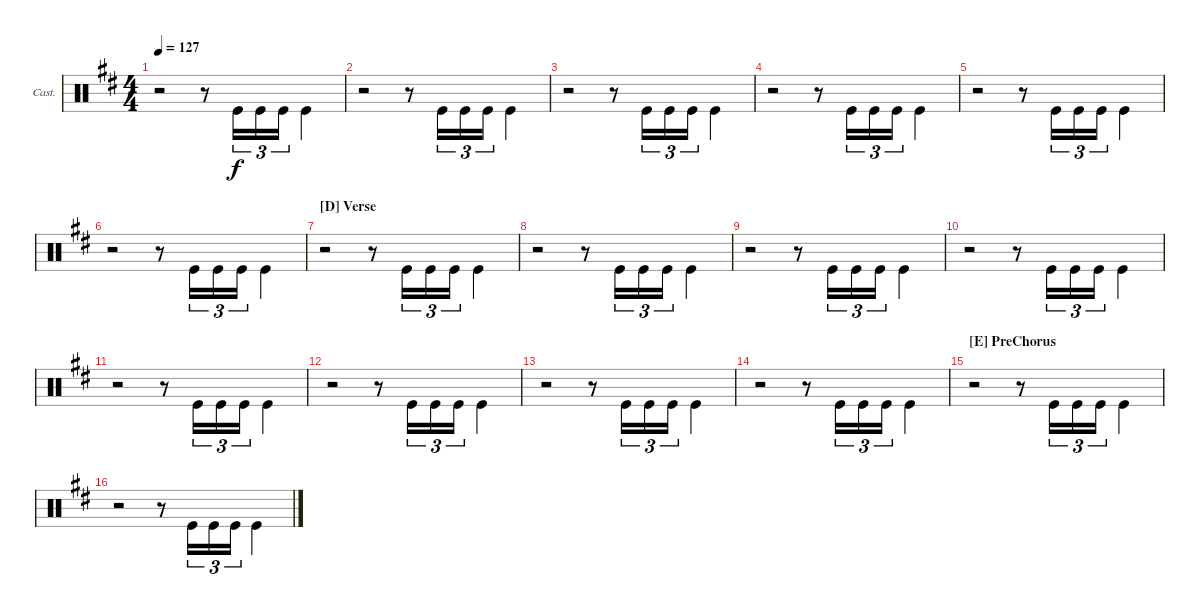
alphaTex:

\bracketExtendMode groupsimilarinstruments
\firstSystemTrackNameOrientation horizontal
\otherSystemsTrackNameOrientation horizontal
\track ("Castanets" "Cast.") {instrument percussion}
\staff {score}
\articulation defaults
\ts (4 4)
\tempo 127
\clef neutral
\scale
0.5
\ks d
r.2{dy f beam invert} r.8{beam invert} "Kick (hit)".16{tu (3 2) beam invert} "Kick (hit)".16{tu (3 2)} "Kick (hit)".16{tu (3 2)} "Kick (hit)".4{beam invert} |
\scale
0.5 r.2{beam invert} r.8{beam invert} "Kick (hit)".16{tu (3 2) beam invert} "Kick (hit)".16{tu (3 2)} "Kick (hit)".16{tu (3 2)} "Kick (hit)".4{beam invert} |
\scale
0.5 r.2{beam invert} r.8{beam invert} "Kick (hit)".16{tu (3 2) beam invert} "Kick (hit)".16{tu (3 2)} "Kick (hit)".16{tu (3 2)} "Kick (hit)".4{beam invert} |
\scale
0.5 r.2{beam invert} r.8{beam invert} "Kick (hit)".16{tu (3 2) beam invert} "Kick (hit)".16{tu (3 2)} "Kick (hit)".16{tu (3 2)} "Kick (hit)".4{beam invert} |
\scale
0.5 r.2{beam invert} r.8{beam invert} "Kick (hit)".16{tu (3 2) beam invert} "Kick (hit)".16{tu (3 2)} "Kick (hit)".16{tu (3 2)} "Kick (hit)".4{beam invert} |
\scale
0.5 r.2{beam invert} r.8{beam invert} "Kick (hit)".16{tu (3 2) beam invert} "Kick (hit)".16{tu (3 2)} "Kick (hit)".16{tu (3 2)} "Kick (hit)".4{beam invert} |
\section ("D" "Verse")
\scale
0.5 r.2{beam invert} r.8{beam invert} "Kick (hit)".16{tu (3 2) beam invert} "Kick (hit)".16{tu (3 2)} "Kick (hit)".16{tu (3 2)} "Kick (hit)".4{beam invert} |
\scale
0.5 r.2{beam invert} r.8{beam invert} "Kick (hit)".16{tu (3 2) beam invert} "Kick (hit)".16{tu (3 2)} "Kick (hit)".16{tu (3 2)} "Kick (hit)".4{beam invert} |
\scale
0.5 r.2{beam invert} r.8{beam invert} "Kick (hit)".16{tu (3 2) beam invert} "Kick (hit)".16{tu (3 2)} "Kick (hit)".16{tu (3 2)} "Kick (hit)".4{beam invert} |
\scale
0.5 r.2{beam invert} r.8{beam invert} "Kick (hit)".16{tu (3 2) beam invert} "Kick (hit)".16{tu (3 2)} "Kick (hit)".16{tu (3 2)} "Kick (hit)".4{beam invert} |
\scale
0.5 r.2{beam invert} r.8{beam invert} "Kick (hit)".16{tu (3 2) beam invert} "Kick (hit)".16{tu (3 2)} "Kick (hit)".16{tu (3 2)} "Kick (hit)".4{beam invert} |
\scale
0.5 r.2{beam invert} r.8{beam invert} "Kick (hit)".16{tu (3 2) beam invert} "Kick (hit)".16{tu (3 2)} "Kick (hit)".16{tu (3 2)} "Kick (hit)".4{beam invert} |
\scale
0.5 r.2{beam invert} r.8{beam invert} "Kick (hit)".16{tu (3 2) beam invert} "Kick (hit)".16{tu (3 2)} "Kick (hit)".16{tu (3 2)} "Kick (hit)".4{beam invert} |
\scale
0.5 r.2{beam invert} r.8{beam invert} "Kick (hit)".16{tu (3 2) beam invert} "Kick (hit)".16{tu (3 2)} "Kick (hit)".16{tu (3 2)} "Kick (hit)".4{beam invert} |
\section ("E" "PreChorus")
\scale
0.5 r.2{beam invert} r.8{beam invert} "Kick (hit)".16{tu (3 2) beam invert} "Kick (hit)".16{tu (3 2)} "Kick (hit)".16{tu (3 2)} "Kick (hit)".4{beam invert} |
\scale
0.5 r.2{beam invert} r.8{beam invert} "Kick (hit)".16{tu (3 2) beam invert} "Kick (hit)".16{tu (3 2)} "Kick (hit)".16{tu (3 2)} "Kick (hit)".4{beam invert}
